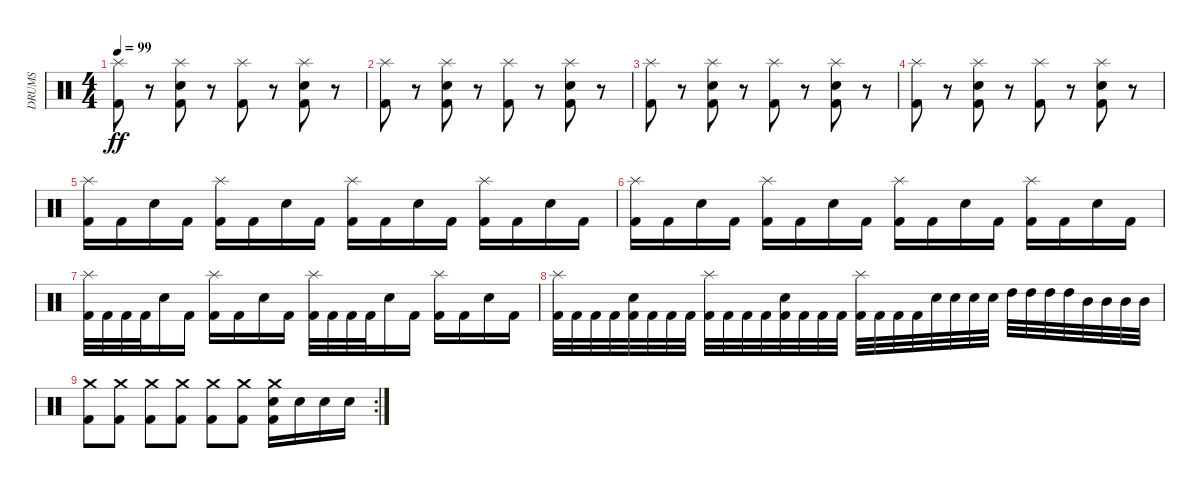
\track ("DRUMS" "DRUMS") {instrument percussion}
\staff {score}
\articulation defaults
\ts (4 4)
\tempo 99
\clef neutral
\ks c
("Splash (hit)" "Kick (hit) 2").8{dy ff} r.8 ("Splash (hit)" "Snare (hit) 2" "Kick (hit) 2").8 r.8 ("Splash (hit)" "Kick (hit) 2").8 r.8 ("Splash (hit)" "Snare (hit) 2" "Kick (hit) 2").8 r.8 |
("Splash (hit)" "Kick (hit) 2").8 r.8 ("Splash (hit)" "Snare (hit) 2" "Kick (hit) 2").8 r.8 ("Splash (hit)" "Kick (hit) 2").8 r.8 ("Splash (hit)" "Snare (hit) 2" "Kick (hit) 2").8 r.8 |
("Splash (hit)" "Kick (hit) 2").8 r.8 ("Splash (hit)" "Snare (hit) 2" "Kick (hit) 2").8 r.8 ("Splash (hit)" "Kick (hit) 2").8 r.8 ("Splash (hit)" "Snare (hit) 2" "Kick (hit) 2").8 r.8 |
("Splash (hit)" "Kick (hit) 2").8 r.8 ("Splash (hit)" "Snare (hit) 2" "Kick (hit) 2").8 r.8 ("Splash (hit)" "Kick (hit) 2").8 r.8 ("Splash (hit)" "Snare (hit) 2" "Kick (hit) 2").8 r.8 |
("Splash (hit)" "Kick (hit) 2").16 "Kick (hit) 2".16 "Snare (hit) 2".16 "Kick (hit) 2".16 ("Splash (hit)" "Kick (hit) 2").16 "Kick (hit) 2".16 "Snare (hit) 2".16 "Kick (hit) 2".16 ("Splash (hit)" "Kick (hit) 2").16 "Kick (hit) 2".16 "Snare (hit) 2".16 "Kick (hit) 2".16 ("Splash (hit)" "Kick (hit) 2").16 "Kick (hit) 2".16 "Snare (hit) 2".16 "Kick (hit) 2".16 |
("Splash (hit)" "Kick (hit) 2").16 "Kick (hit) 2".16 "Snare (hit) 2".16 "Kick (hit) 2".16 ("Splash (hit)" "Kick (hit) 2").16 "Kick (hit) 2".16 "Snare (hit) 2".16 "Kick (hit) 2".16 ("Splash (hit)" "Kick (hit) 2").16 "Kick (hit) 2".16 "Snare (hit) 2".16 "Kick (hit) 2".16 ("Splash (hit)" "Kick (hit) 2").16 "Kick (hit) 2".16 "Snare (hit) 2".16 "Kick (hit) 2".16 |
("Splash (hit)" "Kick (hit) 2").32 "Kick (hit) 2".32 "Kick (hit) 2".32 "Kick (hit) 2".32 "Snare (hit) 2".16 "Kick (hit) 2".16 ("Splash (hit)" "Kick (hit) 2").16 "Kick (hit) 2".16 "Snare (hit) 2".16 "Kick (hit) 2".16 ("Splash (hit)" "Kick (hit) 2").32 "Kick (hit) 2".32 "Kick (hit) 2".32 "Kick (hit) 2".32 "Snare (hit) 2".16 "Kick (hit) 2".16 ("Splash (hit)" "Kick (hit) 2").16 "Kick (hit) 2".16 "Snare (hit) 2".16 "Kick (hit) 2".16 |
("Splash (hit)" "Kick (hit) 2").32 "Kick (hit) 2".32 "Kick (hit) 2".32 "Kick (hit) 2".32 ("Snare (hit) 2" "Kick (hit) 2").32 "Kick (hit) 2".32 "Kick (hit) 2".32 "Kick (hit) 2".32 ("Splash (hit)" "Kick (hit) 2").32 "Kick (hit) 2".32 "Kick (hit) 2".32 "Kick (hit) 2".32 ("Snare (hit) 2" "Kick (hit) 2").32 "Kick (hit) 2".32 "Kick (hit) 2".32 "Kick (hit) 2".32 ("Splash (hit)" "Kick (hit) 2").32 "Kick (hit) 2".32 "Kick (hit) 2".32 "Kick (hit) 2".32 "Snare (hit) 2".32 "Snare (hit) 2".32 "Snare (hit) 2".32 "Snare (hit) 2".32 "High Tom (hit)".32 "High Tom (hit)".32 "High Tom (hit)".32 "High Tom (hit)".32 "Mid Tom (hit)".32 "Mid Tom (hit)".32 "Mid Tom (hit)".32 "Mid Tom (hit)".32 |
\rc 2
("Crash medium (hit)" "Kick (hit) 2").8 ("Crash medium (hit)" "Kick (hit) 2").8 ("Crash medium (hit)" "Kick (hit) 2").8 ("Crash medium (hit)" "Kick (hit) 2").8 ("Crash medium (hit)" "Kick (hit) 2").8 ("Crash medium (hit)" "Kick (hit) 2").8 ("Snare (hit) 2" "Crash medium (hit)" "Kick (hit) 2").16 "Snare (hit) 2".16 "Snare (hit) 2".16 "Snare (hit) 2".16
